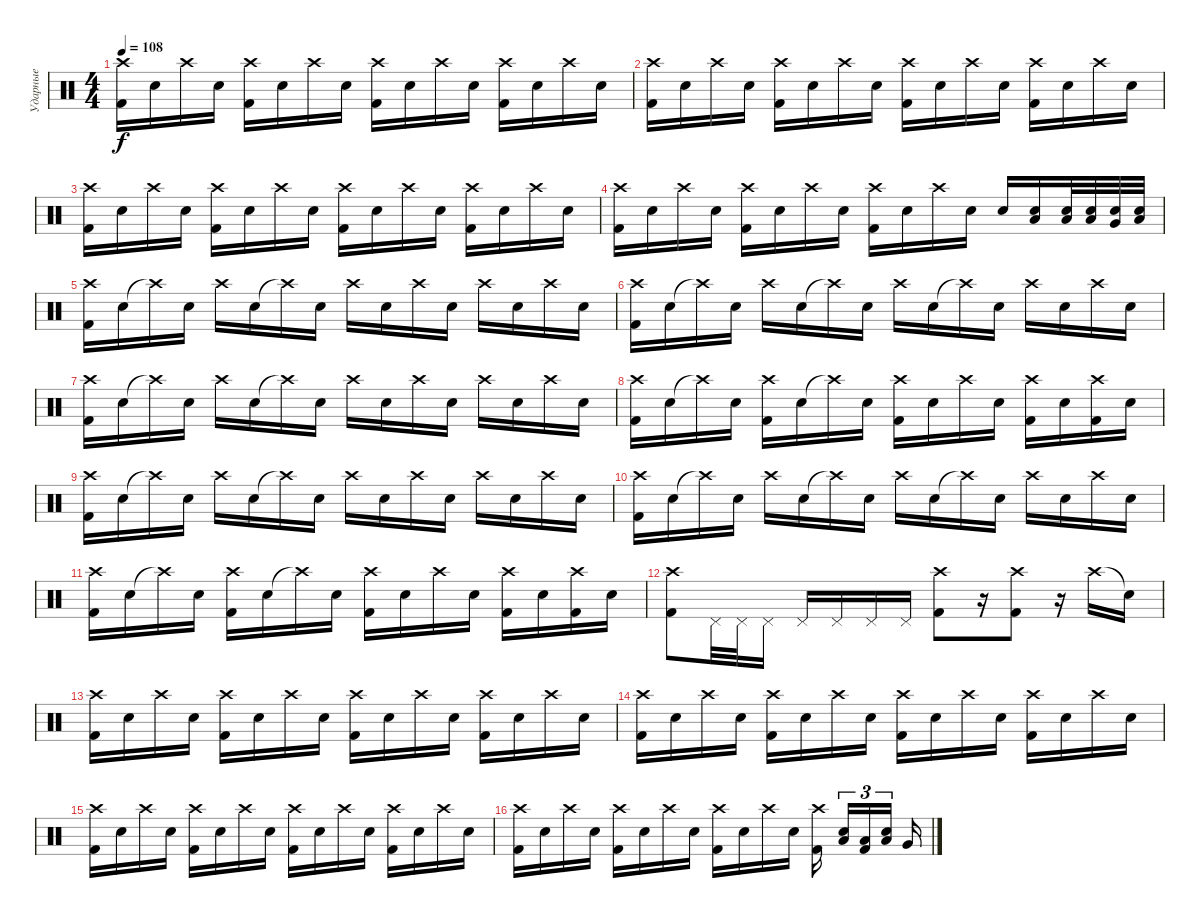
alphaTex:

\track ("Ударные" "Ударные") {instrument percussion}
\staff {score}
\articulation defaults
\ts (4 4)
\tempo 108
\clef neutral
\ks c
("Crash high (hit)" "Kick (hit) 2").16{dy f} "Electric Snare (hit)".16 "Crash high (hit)".16 "Electric Snare (hit)".16 ("Crash high (hit)" "Kick (hit) 2").16 "Electric Snare (hit)".16 "Crash high (hit)".16 "Electric Snare (hit)".16 ("Crash high (hit)" "Kick (hit) 2").16 "Electric Snare (hit)".16 "Crash high (hit)".16 "Electric Snare (hit)".16 ("Crash high (hit)" "Kick (hit) 2").16 "Electric Snare (hit)".16 "Crash high (hit)".16 "Electric Snare (hit)".16 |
("Crash high (hit)" "Kick (hit) 2").16 "Electric Snare (hit)".16 "Crash high (hit)".16 "Electric Snare (hit)".16 ("Crash high (hit)" "Kick (hit) 2").16 "Electric Snare (hit)".16 "Crash high (hit)".16 "Electric Snare (hit)".16 ("Crash high (hit)" "Kick (hit) 2").16 "Electric Snare (hit)".16 "Crash high (hit)".16 "Electric Snare (hit)".16 ("Crash high (hit)" "Kick (hit) 2").16 "Electric Snare (hit)".16 "Crash high (hit)".16 "Electric Snare (hit)".16 |
("Crash high (hit)" "Kick (hit) 2").16 "Electric Snare (hit)".16 "Crash high (hit)".16 "Electric Snare (hit)".16 ("Crash high (hit)" "Kick (hit) 2").16 "Electric Snare (hit)".16 "Crash high (hit)".16 "Electric Snare (hit)".16 ("Crash high (hit)" "Kick (hit) 2").16 "Electric Snare (hit)".16 "Crash high (hit)".16 "Electric Snare (hit)".16 ("Crash high (hit)" "Kick (hit) 2").16 "Electric Snare (hit)".16 "Crash high (hit)".16 "Electric Snare (hit)".16 |
("Crash high (hit)" "Kick (hit) 2").16 "Electric Snare (hit)".16 "Crash high (hit)".16 "Electric Snare (hit)".16 ("Crash high (hit)" "Kick (hit) 2").16 "Electric Snare (hit)".16 "Crash high (hit)".16 "Electric Snare (hit)".16 ("Crash high (hit)" "Kick (hit) 2").16 "Electric Snare (hit)".16 "Crash high (hit)".16 "Electric Snare (hit)".16 "Electric Snare (hit)".16 ("Low Tom (hit)" "Electric Snare (hit)").16 ("Low Tom (hit)" "Electric Snare (hit)").32 ("Low Tom (hit)" "Electric Snare (hit)").32 ("Very Low Tom (hit)" "Electric Snare (hit)").32 ("Low Tom (hit)" "Electric Snare (hit)").32 |
("Crash high (hit)" "Kick (hit) 2").16 "Electric Snare (hit)".16 "Crash high (hit)"{t}.16 "Electric Snare (hit)".16 "Crash high (hit)".16 "Electric Snare (hit)".16 "Crash high (hit)"{t}.16 "Electric Snare (hit)".16 "Crash high (hit)".16 "Electric Snare (hit)".16 "Crash high (hit)".16 "Electric Snare (hit)".16 "Crash high (hit)".16 "Electric Snare (hit)".16 "Crash high (hit)".16 "Electric Snare (hit)".16 |
("Crash high (hit)" "Kick (hit) 2").16 "Electric Snare (hit)".16 "Crash high (hit)"{t}.16 "Electric Snare (hit)".16 "Crash high (hit)".16 "Electric Snare (hit)".16 "Crash high (hit)"{t}.16 "Electric Snare (hit)".16 "Crash high (hit)".16 "Electric Snare (hit)".16 "Crash high (hit)"{t}.16 "Electric Snare (hit)".16 "Crash high (hit)".16 "Electric Snare (hit)".16 "Crash high (hit)".16 "Electric Snare (hit)".16 |
("Crash high (hit)" "Kick (hit) 2").16 "Electric Snare (hit)".16 "Crash high (hit)"{t}.16 "Electric Snare (hit)".16 "Crash high (hit)".16 "Electric Snare (hit)".16 "Crash high (hit)"{t}.16 "Electric Snare (hit)".16 "Crash high (hit)".16 "Electric Snare (hit)".16 "Crash high (hit)".16 "Electric Snare (hit)".16 "Crash high (hit)".16 "Electric Snare (hit)".16 "Crash high (hit)".16 "Electric Snare (hit)".16 |
("Crash high (hit)" "Kick (hit) 2").16 "Electric Snare (hit)".16 "Crash high (hit)"{t}.16 "Electric Snare (hit)".16 ("Crash high (hit)" "Kick (hit) 2").16 "Electric Snare (hit)".16 "Crash high (hit)"{t}.16 "Electric Snare (hit)".16 ("Crash high (hit)" "Kick (hit) 2").16 "Electric Snare (hit)".16 "Crash high (hit)".16 "Electric Snare (hit)".16 ("Crash high (hit)" "Kick (hit) 2").16 "Electric Snare (hit)".16 ("Crash high (hit)" "Kick (hit) 2").16 "Electric Snare (hit)".16 |
("Crash high (hit)" "Kick (hit) 2").16 "Electric Snare (hit)".16 "Crash high (hit)"{t}.16 "Electric Snare (hit)".16 "Crash high (hit)".16 "Electric Snare (hit)".16 "Crash high (hit)"{t}.16 "Electric Snare (hit)".16 "Crash high (hit)".16 "Electric Snare (hit)".16 "Crash high (hit)".16 "Electric Snare (hit)".16 "Crash high (hit)".16 "Electric Snare (hit)".16 "Crash high (hit)".16 "Electric Snare (hit)".16 |
("Crash high (hit)" "Kick (hit) 2").16 "Electric Snare (hit)".16 "Crash high (hit)"{t}.16 "Electric Snare (hit)".16 "Crash high (hit)".16 "Electric Snare (hit)".16 "Crash high (hit)"{t}.16 "Electric Snare (hit)".16 "Crash high (hit)".16 "Electric Snare (hit)".16 "Crash high (hit)"{t}.16 "Electric Snare (hit)".16 "Crash high (hit)".16 "Electric Snare (hit)".16 "Crash high (hit)".16 "Electric Snare (hit)".16 |
("Crash high (hit)" "Kick (hit) 2").16 "Electric Snare (hit)".16 "Crash high (hit)"{t}.16 "Electric Snare (hit)".16 ("Crash high (hit)" "Kick (hit) 2").16 "Electric Snare (hit)".16 "Crash high (hit)"{t}.16 "Electric Snare (hit)".16 ("Crash high (hit)" "Kick (hit) 2").16 "Electric Snare (hit)".16 "Crash high (hit)".16 "Electric Snare (hit)".16 ("Crash high (hit)" "Kick (hit) 2").16 "Electric Snare (hit)".16 ("Crash high (hit)" "Kick (hit) 2").16 "Electric Snare (hit)".16 |
("Crash high (hit)" "Kick (hit) 2").8 "Pedal Hi-Hat (hit)".32 "Pedal Hi-Hat (hit)".32 "Pedal Hi-Hat (hit)".16 "Pedal Hi-Hat (hit)".16 "Pedal Hi-Hat (hit)".16 "Pedal Hi-Hat (hit)".16 "Pedal Hi-Hat (hit)".16 ("Crash high (hit)" "Kick (hit) 2").8 r.16 ("Crash high (hit)" "Kick (hit) 2").8 r.16 "Crash high (hit)".16 "Snare (hit)"{t}.16 |
("Crash high (hit)" "Kick (hit) 2").16 "Electric Snare (hit)".16 "Crash high (hit)".16 "Electric Snare (hit)".16 ("Crash high (hit)" "Kick (hit) 2").16 "Electric Snare (hit)".16 "Crash high (hit)".16 "Electric Snare (hit)".16 ("Crash high (hit)" "Kick (hit) 2").16 "Electric Snare (hit)".16 "Crash high (hit)".16 "Electric Snare (hit)".16 ("Crash high (hit)" "Kick (hit) 2").16 "Electric Snare (hit)".16 "Crash high (hit)".16 "Electric Snare (hit)".16 |
("Crash high (hit)" "Kick (hit) 2").16 "Electric Snare (hit)".16 "Crash high (hit)".16 "Electric Snare (hit)".16 ("Crash high (hit)" "Kick (hit) 2").16 "Electric Snare (hit)".16 "Crash high (hit)".16 "Electric Snare (hit)".16 ("Crash high (hit)" "Kick (hit) 2").16 "Electric Snare (hit)".16 "Crash high (hit)".16 "Electric Snare (hit)".16 ("Crash high (hit)" "Kick (hit) 2").16 "Electric Snare (hit)".16 "Crash high (hit)".16 "Electric Snare (hit)".16 |
("Crash high (hit)" "Kick (hit) 2").16 "Electric Snare (hit)".16 "Crash high (hit)".16 "Electric Snare (hit)".16 ("Crash high (hit)" "Kick (hit) 2").16 "Electric Snare (hit)".16 "Crash high (hit)".16 "Electric Snare (hit)".16 ("Crash high (hit)" "Kick (hit) 2").16 "Electric Snare (hit)".16 "Crash high (hit)".16 "Electric Snare (hit)".16 ("Crash high (hit)" "Kick (hit) 2").16 "Electric Snare (hit)".16 "Crash high (hit)".16 "Electric Snare (hit)".16 |
("Crash high (hit)" "Kick (hit) 2").16 "Electric Snare (hit)".16 "Crash high (hit)".16 "Electric Snare (hit)".16 ("Crash high (hit)" "Kick (hit) 2").16 "Electric Snare (hit)".16 "Crash high (hit)".16 "Electric Snare (hit)".16 ("Crash high (hit)" "Kick (hit) 2").16 "Electric Snare (hit)".16 "Crash high (hit)".16 "Electric Snare (hit)".16 ("Crash high (hit)" "Kick (hit) 2").16{beam splitsecondary} ("Electric Snare (hit)" "Low Tom (hit)").16{tu (3 2)} ("Kick (hit) 2" "Low Tom (hit)").16{tu (3 2)} ("Electric Snare (hit)" "Low Tom (hit)").16{tu (3 2) beam splitsecondary} "Very Low Tom (hit)".16
